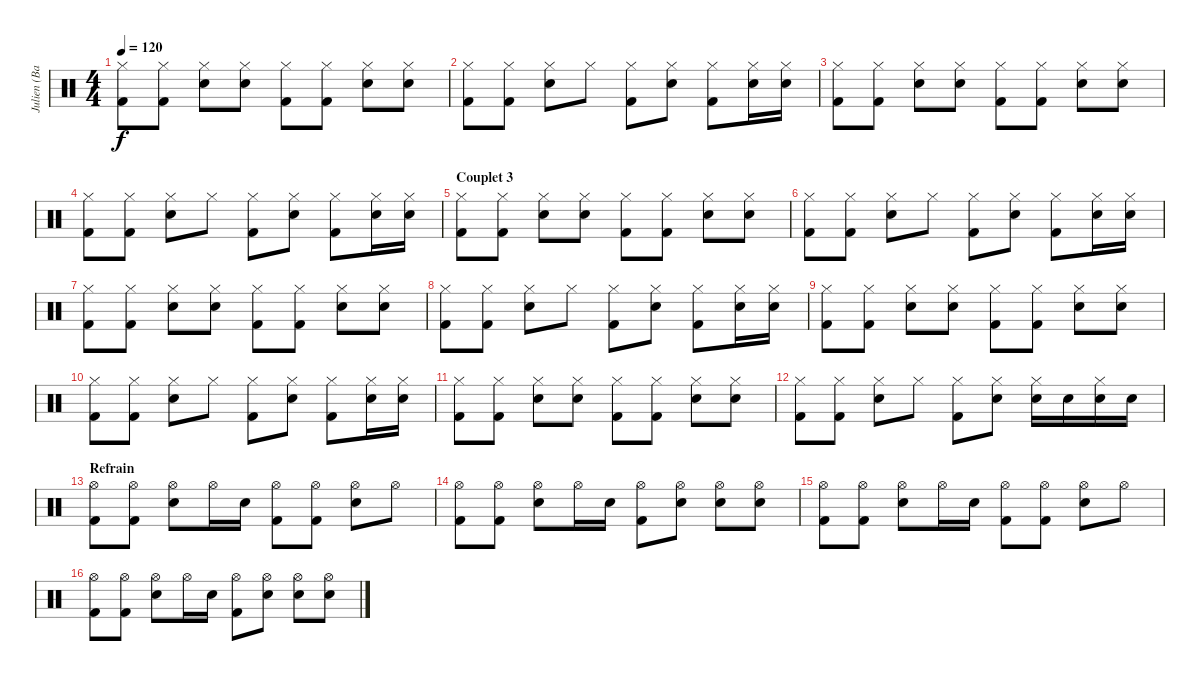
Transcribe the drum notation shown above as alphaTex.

\track ("Julien (Batterie)" "Julien (Ba") {instrument percussion}
\staff {score}
\articulation defaults
\ts (4 4)
\tempo 120
\clef neutral
\ks c
("Hi-Hat (closed)" "Kick (hit) 2").8{dy f} ("Hi-Hat (closed)" "Kick (hit) 2").8 ("Hi-Hat (closed)" "Electric Snare (hit)").8 ("Hi-Hat (closed)" "Electric Snare (hit)").8 ("Hi-Hat (closed)" "Kick (hit) 2").8 ("Hi-Hat (closed)" "Kick (hit) 2").8 ("Hi-Hat (closed)" "Electric Snare (hit)").8 ("Hi-Hat (closed)" "Electric Snare (hit)").8 |
("Hi-Hat (closed)" "Kick (hit) 2").8 ("Hi-Hat (closed)" "Kick (hit) 2").8 ("Hi-Hat (closed)" "Electric Snare (hit)").8 "Hi-Hat (closed)".8 ("Hi-Hat (closed)" "Kick (hit) 2").8 ("Hi-Hat (closed)" "Electric Snare (hit)").8 ("Hi-Hat (closed)" "Kick (hit) 2").8 ("Hi-Hat (closed)" "Electric Snare (hit)").16 ("Hi-Hat (closed)" "Electric Snare (hit)").16 |
("Hi-Hat (closed)" "Kick (hit) 2").8 ("Hi-Hat (closed)" "Kick (hit) 2").8 ("Hi-Hat (closed)" "Electric Snare (hit)").8 ("Hi-Hat (closed)" "Electric Snare (hit)").8 ("Hi-Hat (closed)" "Kick (hit) 2").8 ("Hi-Hat (closed)" "Kick (hit) 2").8 ("Hi-Hat (closed)" "Electric Snare (hit)").8 ("Hi-Hat (closed)" "Electric Snare (hit)").8 |
("Hi-Hat (closed)" "Kick (hit) 2").8 ("Hi-Hat (closed)" "Kick (hit) 2").8 ("Hi-Hat (closed)" "Electric Snare (hit)").8 "Hi-Hat (closed)".8 ("Hi-Hat (closed)" "Kick (hit) 2").8 ("Hi-Hat (closed)" "Electric Snare (hit)").8 ("Hi-Hat (closed)" "Kick (hit) 2").8 ("Hi-Hat (closed)" "Electric Snare (hit)").16 ("Hi-Hat (closed)" "Electric Snare (hit)").16 |
\section ("" "Couplet 3")
("Hi-Hat (closed)" "Kick (hit) 2").8 ("Hi-Hat (closed)" "Kick (hit) 2").8 ("Hi-Hat (closed)" "Electric Snare (hit)").8 ("Hi-Hat (closed)" "Electric Snare (hit)").8 ("Hi-Hat (closed)" "Kick (hit) 2").8 ("Hi-Hat (closed)" "Kick (hit) 2").8 ("Hi-Hat (closed)" "Electric Snare (hit)").8 ("Hi-Hat (closed)" "Electric Snare (hit)").8 |
("Hi-Hat (closed)" "Kick (hit) 2").8 ("Hi-Hat (closed)" "Kick (hit) 2").8 ("Hi-Hat (closed)" "Electric Snare (hit)").8 "Hi-Hat (closed)".8 ("Hi-Hat (closed)" "Kick (hit) 2").8 ("Hi-Hat (closed)" "Electric Snare (hit)").8 ("Hi-Hat (closed)" "Kick (hit) 2").8 ("Hi-Hat (closed)" "Electric Snare (hit)").16 ("Hi-Hat (closed)" "Electric Snare (hit)").16 |
("Hi-Hat (closed)" "Kick (hit) 2").8 ("Hi-Hat (closed)" "Kick (hit) 2").8 ("Hi-Hat (closed)" "Electric Snare (hit)").8 ("Hi-Hat (closed)" "Electric Snare (hit)").8 ("Hi-Hat (closed)" "Kick (hit) 2").8 ("Hi-Hat (closed)" "Kick (hit) 2").8 ("Hi-Hat (closed)" "Electric Snare (hit)").8 ("Hi-Hat (closed)" "Electric Snare (hit)").8 |
("Hi-Hat (closed)" "Kick (hit) 2").8 ("Hi-Hat (closed)" "Kick (hit) 2").8 ("Hi-Hat (closed)" "Electric Snare (hit)").8 "Hi-Hat (closed)".8 ("Hi-Hat (closed)" "Kick (hit) 2").8 ("Hi-Hat (closed)" "Electric Snare (hit)").8 ("Hi-Hat (closed)" "Kick (hit) 2").8 ("Hi-Hat (closed)" "Electric Snare (hit)").16 ("Hi-Hat (closed)" "Electric Snare (hit)").16 |
("Hi-Hat (closed)" "Kick (hit) 2").8 ("Hi-Hat (closed)" "Kick (hit) 2").8 ("Hi-Hat (closed)" "Electric Snare (hit)").8 ("Hi-Hat (closed)" "Electric Snare (hit)").8 ("Hi-Hat (closed)" "Kick (hit) 2").8 ("Hi-Hat (closed)" "Kick (hit) 2").8 ("Hi-Hat (closed)" "Electric Snare (hit)").8 ("Hi-Hat (closed)" "Electric Snare (hit)").8 |
("Hi-Hat (closed)" "Kick (hit) 2").8 ("Hi-Hat (closed)" "Kick (hit) 2").8 ("Hi-Hat (closed)" "Electric Snare (hit)").8 "Hi-Hat (closed)".8 ("Hi-Hat (closed)" "Kick (hit) 2").8 ("Hi-Hat (closed)" "Electric Snare (hit)").8 ("Hi-Hat (closed)" "Kick (hit) 2").8 ("Hi-Hat (closed)" "Electric Snare (hit)").16 ("Hi-Hat (closed)" "Electric Snare (hit)").16 |
("Hi-Hat (closed)" "Kick (hit) 2").8 ("Hi-Hat (closed)" "Kick (hit) 2").8 ("Hi-Hat (closed)" "Electric Snare (hit)").8 ("Hi-Hat (closed)" "Electric Snare (hit)").8 ("Hi-Hat (closed)" "Kick (hit) 2").8 ("Hi-Hat (closed)" "Kick (hit) 2").8 ("Hi-Hat (closed)" "Electric Snare (hit)").8 ("Hi-Hat (closed)" "Electric Snare (hit)").8 |
("Hi-Hat (closed)" "Kick (hit) 2").8 ("Hi-Hat (closed)" "Kick (hit) 2").8 ("Hi-Hat (closed)" "Electric Snare (hit)").8 "Hi-Hat (closed)".8 ("Hi-Hat (closed)" "Kick (hit) 2").8 ("Hi-Hat (closed)" "Electric Snare (hit)").8 ("Hi-Hat (closed)" "Electric Snare (hit)").16 "Electric Snare (hit)".16 ("Hi-Hat (closed)" "Electric Snare (hit)").16 "Electric Snare (hit)".16 |
\section ("" "Refrain")
("Hi-Hat (open)" "Kick (hit) 2").8 ("Hi-Hat (open)" "Kick (hit) 2").8 ("Hi-Hat (open)" "Electric Snare (hit)").8 "Hi-Hat (open)".16 "Electric Snare (hit)".16 ("Hi-Hat (open)" "Kick (hit) 2").8 ("Hi-Hat (open)" "Kick (hit) 2").8 ("Hi-Hat (open)" "Electric Snare (hit)").8 "Hi-Hat (open)".8 |
("Hi-Hat (open)" "Kick (hit) 2").8 ("Hi-Hat (open)" "Kick (hit) 2").8 ("Hi-Hat (open)" "Electric Snare (hit)").8 "Hi-Hat (open)".16 "Electric Snare (hit)".16 ("Hi-Hat (open)" "Kick (hit) 2").8 ("Hi-Hat (open)" "Electric Snare (hit)").8 ("Hi-Hat (open)" "Electric Snare (hit)").8 ("Hi-Hat (open)" "Electric Snare (hit)").8 |
("Hi-Hat (open)" "Kick (hit) 2").8 ("Hi-Hat (open)" "Kick (hit) 2").8 ("Hi-Hat (open)" "Electric Snare (hit)").8 "Hi-Hat (open)".16 "Electric Snare (hit)".16 ("Hi-Hat (open)" "Kick (hit) 2").8 ("Hi-Hat (open)" "Kick (hit) 2").8 ("Hi-Hat (open)" "Electric Snare (hit)").8 "Hi-Hat (open)".8 |
("Hi-Hat (open)" "Kick (hit) 2").8 ("Hi-Hat (open)" "Kick (hit) 2").8 ("Hi-Hat (open)" "Electric Snare (hit)").8 "Hi-Hat (open)".16 "Electric Snare (hit)".16 ("Hi-Hat (open)" "Kick (hit) 2").8 ("Hi-Hat (open)" "Electric Snare (hit)").8 ("Hi-Hat (open)" "Electric Snare (hit)").8 ("Hi-Hat (open)" "Electric Snare (hit)").8
